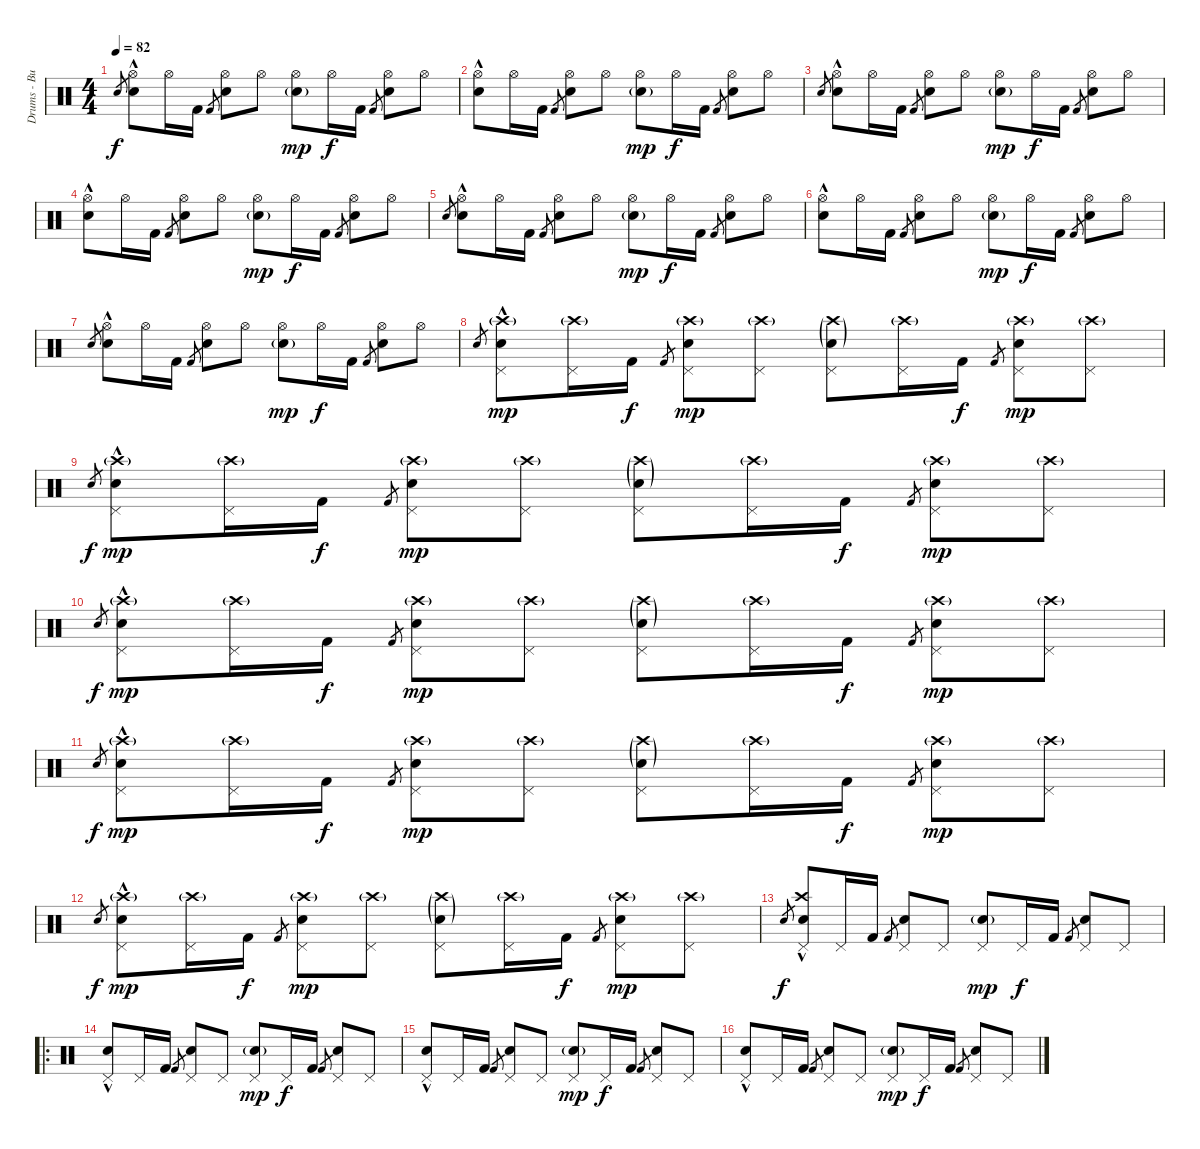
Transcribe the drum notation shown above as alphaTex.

\track ("Drums - Buddy" "Drums - Bu") {instrument percussion}
\staff {score}
\articulation defaults
\ts (4 4)
\tempo 82
\clef neutral
\ks c "Electric Snare (hit)".8{gr dy f}
("Electric Snare (hit)" "Hi-Hat (open)"{hac}).8 "Hi-Hat (open)".16 "Kick (hit) 2".16 "Kick (hit) 2".8{gr} ("Electric Snare (hit)" "Hi-Hat (open)").8 "Hi-Hat (open)".8 ("Electric Snare (hit)"{g} "Hi-Hat (open)").8{dy mp} "Hi-Hat (open)".16{dy f} "Kick (hit) 2".16 "Kick (hit) 2".8{gr} ("Electric Snare (hit)" "Hi-Hat (open)").8 "Hi-Hat (open)".8 |
("Electric Snare (hit)" "Hi-Hat (open)"{hac}).8 "Hi-Hat (open)".16 "Kick (hit) 2".16 "Kick (hit) 2".8{gr} ("Electric Snare (hit)" "Hi-Hat (open)").8 "Hi-Hat (open)".8 ("Electric Snare (hit)"{g} "Hi-Hat (open)").8{dy mp} "Hi-Hat (open)".16{dy f} "Kick (hit) 2".16 "Kick (hit) 2".8{gr} ("Electric Snare (hit)" "Hi-Hat (open)").8 "Hi-Hat (open)".8 |
"Electric Snare (hit)".8{gr} ("Electric Snare (hit)" "Hi-Hat (open)"{hac}).8 "Hi-Hat (open)".16 "Kick (hit) 2".16 "Kick (hit) 2".8{gr} ("Electric Snare (hit)" "Hi-Hat (open)").8 "Hi-Hat (open)".8 ("Electric Snare (hit)"{g} "Hi-Hat (open)").8{dy mp} "Hi-Hat (open)".16{dy f} "Kick (hit) 2".16 "Kick (hit) 2".8{gr} ("Electric Snare (hit)" "Hi-Hat (open)").8 "Hi-Hat (open)".8 |
("Electric Snare (hit)" "Hi-Hat (open)"{hac}).8 "Hi-Hat (open)".16 "Kick (hit) 2".16 "Kick (hit) 2".8{gr} ("Electric Snare (hit)" "Hi-Hat (open)").8 "Hi-Hat (open)".8 ("Electric Snare (hit)"{g} "Hi-Hat (open)").8{dy mp} "Hi-Hat (open)".16{dy f} "Kick (hit) 2".16 "Kick (hit) 2".8{gr} ("Electric Snare (hit)" "Hi-Hat (open)").8 "Hi-Hat (open)".8 |
"Electric Snare (hit)".8{gr} ("Electric Snare (hit)" "Hi-Hat (open)"{hac}).8 "Hi-Hat (open)".16 "Kick (hit) 2".16 "Kick (hit) 2".8{gr} ("Electric Snare (hit)" "Hi-Hat (open)").8 "Hi-Hat (open)".8 ("Electric Snare (hit)"{g} "Hi-Hat (open)").8{dy mp} "Hi-Hat (open)".16{dy f} "Kick (hit) 2".16 "Kick (hit) 2".8{gr} ("Electric Snare (hit)" "Hi-Hat (open)").8 "Hi-Hat (open)".8 |
("Electric Snare (hit)" "Hi-Hat (open)"{hac}).8 "Hi-Hat (open)".16 "Kick (hit) 2".16 "Kick (hit) 2".8{gr} ("Electric Snare (hit)" "Hi-Hat (open)").8 "Hi-Hat (open)".8 ("Electric Snare (hit)"{g} "Hi-Hat (open)").8{dy mp} "Hi-Hat (open)".16{dy f} "Kick (hit) 2".16 "Kick (hit) 2".8{gr} ("Electric Snare (hit)" "Hi-Hat (open)").8 "Hi-Hat (open)".8 |
"Electric Snare (hit)".8{gr} ("Electric Snare (hit)" "Hi-Hat (open)"{hac}).8 "Hi-Hat (open)".16 "Kick (hit) 2".16 "Kick (hit) 2".8{gr} ("Electric Snare (hit)" "Hi-Hat (open)").8 "Hi-Hat (open)".8 ("Electric Snare (hit)"{g} "Hi-Hat (open)").8{dy mp} "Hi-Hat (open)".16{dy f} "Kick (hit) 2".16 "Kick (hit) 2".8{gr} ("Electric Snare (hit)" "Hi-Hat (open)").8 "Hi-Hat (open)".8 |
"Electric Snare (hit)".8{gr} ("Crash high (hit)"{g} "Electric Snare (hit)" "Pedal Hi-Hat (hit)"{hac}).8{dy mp} ("Crash high (hit)"{g} "Pedal Hi-Hat (hit)").16 "Kick (hit) 2".16{dy f} "Kick (hit) 2".8{gr} ("Crash high (hit)"{g} "Electric Snare (hit)" "Pedal Hi-Hat (hit)").8{dy mp} ("Crash high (hit)"{g} "Pedal Hi-Hat (hit)").8 ("Crash high (hit)"{g} "Electric Snare (hit)"{g} "Pedal Hi-Hat (hit)").8 ("Crash high (hit)"{g} "Pedal Hi-Hat (hit)").16 "Kick (hit) 2".16{dy f} "Kick (hit) 2".8{gr} ("Crash high (hit)"{g} "Electric Snare (hit)" "Pedal Hi-Hat (hit)").8{dy mp} ("Crash high (hit)"{g} "Pedal Hi-Hat (hit)").8 |
"Electric Snare (hit)".8{gr dy f} ("Crash high (hit)"{g} "Electric Snare (hit)" "Pedal Hi-Hat (hit)"{hac}).8{dy mp} ("Crash high (hit)"{g} "Pedal Hi-Hat (hit)").16 "Kick (hit) 2".16{dy f} "Kick (hit) 2".8{gr} ("Crash high (hit)"{g} "Electric Snare (hit)" "Pedal Hi-Hat (hit)").8{dy mp} ("Crash high (hit)"{g} "Pedal Hi-Hat (hit)").8 ("Crash high (hit)"{g} "Electric Snare (hit)"{g} "Pedal Hi-Hat (hit)").8 ("Crash high (hit)"{g} "Pedal Hi-Hat (hit)").16 "Kick (hit) 2".16{dy f} "Kick (hit) 2".8{gr} ("Crash high (hit)"{g} "Electric Snare (hit)" "Pedal Hi-Hat (hit)").8{dy mp} ("Crash high (hit)"{g} "Pedal Hi-Hat (hit)").8 |
"Electric Snare (hit)".8{gr dy f} ("Crash high (hit)"{g} "Electric Snare (hit)" "Pedal Hi-Hat (hit)"{hac}).8{dy mp} ("Crash high (hit)"{g} "Pedal Hi-Hat (hit)").16 "Kick (hit) 2".16{dy f} "Kick (hit) 2".8{gr} ("Crash high (hit)"{g} "Electric Snare (hit)" "Pedal Hi-Hat (hit)").8{dy mp} ("Crash high (hit)"{g} "Pedal Hi-Hat (hit)").8 ("Crash high (hit)"{g} "Electric Snare (hit)"{g} "Pedal Hi-Hat (hit)").8 ("Crash high (hit)"{g} "Pedal Hi-Hat (hit)").16 "Kick (hit) 2".16{dy f} "Kick (hit) 2".8{gr} ("Crash high (hit)"{g} "Electric Snare (hit)" "Pedal Hi-Hat (hit)").8{dy mp} ("Crash high (hit)"{g} "Pedal Hi-Hat (hit)").8 |
"Electric Snare (hit)".8{gr dy f} ("Crash high (hit)"{g} "Electric Snare (hit)" "Pedal Hi-Hat (hit)"{hac}).8{dy mp} ("Crash high (hit)"{g} "Pedal Hi-Hat (hit)").16 "Kick (hit) 2".16{dy f} "Kick (hit) 2".8{gr} ("Crash high (hit)"{g} "Electric Snare (hit)" "Pedal Hi-Hat (hit)").8{dy mp} ("Crash high (hit)"{g} "Pedal Hi-Hat (hit)").8 ("Crash high (hit)"{g} "Electric Snare (hit)"{g} "Pedal Hi-Hat (hit)").8 ("Crash high (hit)"{g} "Pedal Hi-Hat (hit)").16 "Kick (hit) 2".16{dy f} "Kick (hit) 2".8{gr} ("Crash high (hit)"{g} "Electric Snare (hit)" "Pedal Hi-Hat (hit)").8{dy mp} ("Crash high (hit)"{g} "Pedal Hi-Hat (hit)").8 |
"Electric Snare (hit)".8{gr dy f} ("Crash high (hit)"{g} "Electric Snare (hit)" "Pedal Hi-Hat (hit)"{hac}).8{dy mp} ("Crash high (hit)"{g} "Pedal Hi-Hat (hit)").16 "Kick (hit) 2".16{dy f} "Kick (hit) 2".8{gr} ("Crash high (hit)"{g} "Electric Snare (hit)" "Pedal Hi-Hat (hit)").8{dy mp} ("Crash high (hit)"{g} "Pedal Hi-Hat (hit)").8 ("Crash high (hit)"{g} "Electric Snare (hit)"{g} "Pedal Hi-Hat (hit)").8 ("Crash high (hit)"{g} "Pedal Hi-Hat (hit)").16 "Kick (hit) 2".16{dy f} "Kick (hit) 2".8{gr} ("Crash high (hit)"{g} "Electric Snare (hit)" "Pedal Hi-Hat (hit)").8{dy mp} ("Crash high (hit)"{g} "Pedal Hi-Hat (hit)").8 |
"Electric Snare (hit)".8{gr dy f} ("Crash high (hit)" "Electric Snare (hit)" "Pedal Hi-Hat (hit)"{hac}).8 "Pedal Hi-Hat (hit)".16 "Kick (hit) 2".16 "Kick (hit) 2".8{gr} ("Electric Snare (hit)" "Pedal Hi-Hat (hit)").8 "Pedal Hi-Hat (hit)".8 ("Electric Snare (hit)"{g} "Pedal Hi-Hat (hit)").8{dy mp} "Pedal Hi-Hat (hit)".16{dy f} "Kick (hit) 2".16 "Kick (hit) 2".8{gr} ("Electric Snare (hit)" "Pedal Hi-Hat (hit)").8 "Pedal Hi-Hat (hit)".8 |
\ro
("Electric Snare (hit)" "Pedal Hi-Hat (hit)"{hac}).8 "Pedal Hi-Hat (hit)".16 "Kick (hit) 2".16 "Kick (hit) 2".8{gr} ("Electric Snare (hit)" "Pedal Hi-Hat (hit)").8 "Pedal Hi-Hat (hit)".8 ("Electric Snare (hit)"{g} "Pedal Hi-Hat (hit)").8{dy mp} "Pedal Hi-Hat (hit)".16{dy f} "Kick (hit) 2".16 "Kick (hit) 2".8{gr} ("Electric Snare (hit)" "Pedal Hi-Hat (hit)").8 "Pedal Hi-Hat (hit)".8 |
("Electric Snare (hit)" "Pedal Hi-Hat (hit)"{hac}).8 "Pedal Hi-Hat (hit)".16 "Kick (hit) 2".16 "Kick (hit) 2".8{gr} ("Electric Snare (hit)" "Pedal Hi-Hat (hit)").8 "Pedal Hi-Hat (hit)".8 ("Electric Snare (hit)"{g} "Pedal Hi-Hat (hit)").8{dy mp} "Pedal Hi-Hat (hit)".16{dy f} "Kick (hit) 2".16 "Kick (hit) 2".8{gr} ("Electric Snare (hit)" "Pedal Hi-Hat (hit)").8 "Pedal Hi-Hat (hit)".8 |
("Electric Snare (hit)" "Pedal Hi-Hat (hit)"{hac}).8 "Pedal Hi-Hat (hit)".16 "Kick (hit) 2".16 "Kick (hit) 2".8{gr} ("Electric Snare (hit)" "Pedal Hi-Hat (hit)").8 "Pedal Hi-Hat (hit)".8 ("Electric Snare (hit)"{g} "Pedal Hi-Hat (hit)").8{dy mp} "Pedal Hi-Hat (hit)".16{dy f} "Kick (hit) 2".16 "Kick (hit) 2".8{gr} ("Electric Snare (hit)" "Pedal Hi-Hat (hit)").8 "Pedal Hi-Hat (hit)".8
